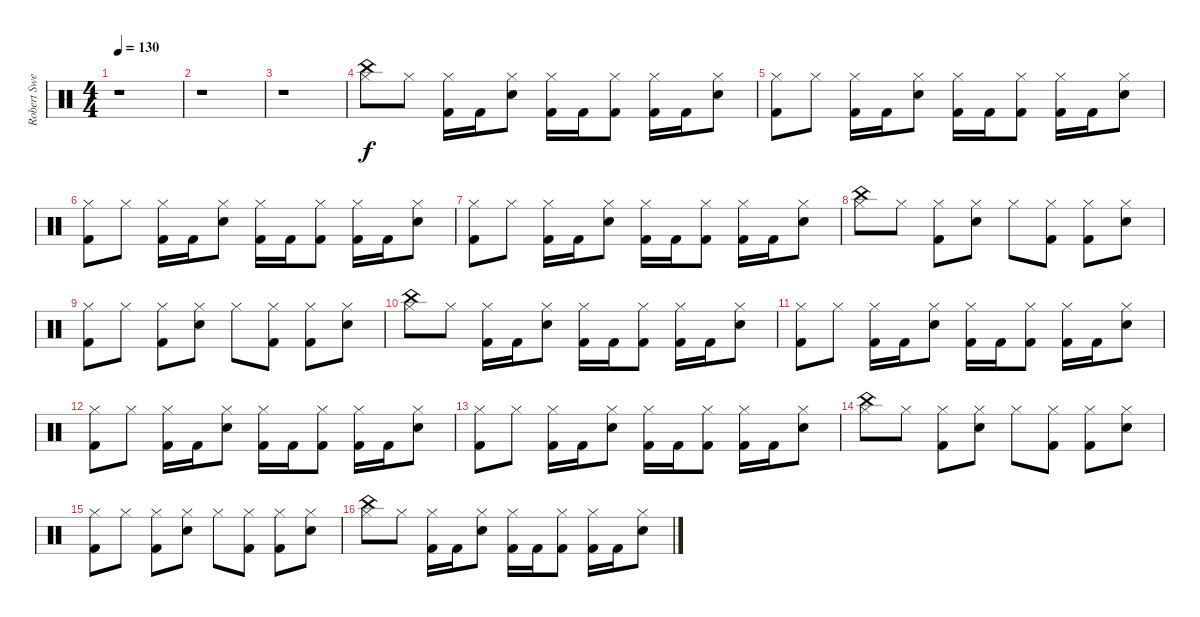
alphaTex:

\track ("Robert Sweet" "Robert Swe") {instrument percussion}
\staff {score}
\articulation defaults
\ts (4 4)
\tempo 130
\clef neutral
\ks c
r.1{dy f} |
r.1 |
r.1 |
("Hi-Hat (closed)" "China (hit)").8 "Hi-Hat (closed)".8 ("Hi-Hat (closed)" "Kick (hit) 2").16 "Kick (hit) 2".16 ("Hi-Hat (closed)" "Snare (hit) 2").8 ("Hi-Hat (closed)" "Kick (hit) 2").16 "Kick (hit) 2".16 ("Hi-Hat (closed)" "Kick (hit) 2").8 ("Hi-Hat (closed)" "Kick (hit) 2").16 "Kick (hit) 2".16 ("Hi-Hat (closed)" "Snare (hit) 2").8 |
("Hi-Hat (closed)" "Kick (hit) 2").8 "Hi-Hat (closed)".8 ("Hi-Hat (closed)" "Kick (hit) 2").16 "Kick (hit) 2".16 ("Hi-Hat (closed)" "Snare (hit) 2").8 ("Hi-Hat (closed)" "Kick (hit) 2").16 "Kick (hit) 2".16 ("Hi-Hat (closed)" "Kick (hit) 2").8 ("Hi-Hat (closed)" "Kick (hit) 2").16 "Kick (hit) 2".16 ("Hi-Hat (closed)" "Snare (hit) 2").8 |
("Hi-Hat (closed)" "Kick (hit) 2").8 "Hi-Hat (closed)".8 ("Hi-Hat (closed)" "Kick (hit) 2").16 "Kick (hit) 2".16 ("Hi-Hat (closed)" "Snare (hit) 2").8 ("Hi-Hat (closed)" "Kick (hit) 2").16 "Kick (hit) 2".16 ("Hi-Hat (closed)" "Kick (hit) 2").8 ("Hi-Hat (closed)" "Kick (hit) 2").16 "Kick (hit) 2".16 ("Hi-Hat (closed)" "Snare (hit) 2").8 |
("Hi-Hat (closed)" "Kick (hit) 2").8 "Hi-Hat (closed)".8 ("Hi-Hat (closed)" "Kick (hit) 2").16 "Kick (hit) 2".16 ("Hi-Hat (closed)" "Snare (hit) 2").8 ("Hi-Hat (closed)" "Kick (hit) 2").16 "Kick (hit) 2".16 ("Hi-Hat (closed)" "Kick (hit) 2").8 ("Hi-Hat (closed)" "Kick (hit) 2").16 "Kick (hit) 2".16 ("Hi-Hat (closed)" "Snare (hit) 2").8 |
("Hi-Hat (closed)" "China (hit)").8 "Hi-Hat (closed)".8 ("Hi-Hat (closed)" "Kick (hit) 2").8 ("Hi-Hat (closed)" "Snare (hit) 2").8 "Hi-Hat (closed)".8 ("Hi-Hat (closed)" "Kick (hit) 2").8 ("Hi-Hat (closed)" "Kick (hit) 2").8 ("Hi-Hat (closed)" "Snare (hit) 2").8 |
("Hi-Hat (closed)" "Kick (hit) 2").8 "Hi-Hat (closed)".8 ("Hi-Hat (closed)" "Kick (hit) 2").8 ("Hi-Hat (closed)" "Snare (hit) 2").8 "Hi-Hat (closed)".8 ("Hi-Hat (closed)" "Kick (hit) 2").8 ("Hi-Hat (closed)" "Kick (hit) 2").8 ("Hi-Hat (closed)" "Snare (hit) 2").8 |
("Hi-Hat (closed)" "China (hit)").8 "Hi-Hat (closed)".8 ("Hi-Hat (closed)" "Kick (hit) 2").16 "Kick (hit) 2".16 ("Hi-Hat (closed)" "Snare (hit) 2").8 ("Hi-Hat (closed)" "Kick (hit) 2").16 "Kick (hit) 2".16 ("Hi-Hat (closed)" "Kick (hit) 2").8 ("Hi-Hat (closed)" "Kick (hit) 2").16 "Kick (hit) 2".16 ("Hi-Hat (closed)" "Snare (hit) 2").8 |
("Hi-Hat (closed)" "Kick (hit) 2").8 "Hi-Hat (closed)".8 ("Hi-Hat (closed)" "Kick (hit) 2").16 "Kick (hit) 2".16 ("Hi-Hat (closed)" "Snare (hit) 2").8 ("Hi-Hat (closed)" "Kick (hit) 2").16 "Kick (hit) 2".16 ("Hi-Hat (closed)" "Kick (hit) 2").8 ("Hi-Hat (closed)" "Kick (hit) 2").16 "Kick (hit) 2".16 ("Hi-Hat (closed)" "Snare (hit) 2").8 |
("Hi-Hat (closed)" "Kick (hit) 2").8 "Hi-Hat (closed)".8 ("Hi-Hat (closed)" "Kick (hit) 2").16 "Kick (hit) 2".16 ("Hi-Hat (closed)" "Snare (hit) 2").8 ("Hi-Hat (closed)" "Kick (hit) 2").16 "Kick (hit) 2".16 ("Hi-Hat (closed)" "Kick (hit) 2").8 ("Hi-Hat (closed)" "Kick (hit) 2").16 "Kick (hit) 2".16 ("Hi-Hat (closed)" "Snare (hit) 2").8 |
("Hi-Hat (closed)" "Kick (hit) 2").8 "Hi-Hat (closed)".8 ("Hi-Hat (closed)" "Kick (hit) 2").16 "Kick (hit) 2".16 ("Hi-Hat (closed)" "Snare (hit) 2").8 ("Hi-Hat (closed)" "Kick (hit) 2").16 "Kick (hit) 2".16 ("Hi-Hat (closed)" "Kick (hit) 2").8 ("Hi-Hat (closed)" "Kick (hit) 2").16 "Kick (hit) 2".16 ("Hi-Hat (closed)" "Snare (hit) 2").8 |
("Hi-Hat (closed)" "China (hit)").8 "Hi-Hat (closed)".8 ("Hi-Hat (closed)" "Kick (hit) 2").8 ("Hi-Hat (closed)" "Snare (hit) 2").8 "Hi-Hat (closed)".8 ("Hi-Hat (closed)" "Kick (hit) 2").8 ("Hi-Hat (closed)" "Kick (hit) 2").8 ("Hi-Hat (closed)" "Snare (hit) 2").8 |
("Hi-Hat (closed)" "Kick (hit) 2").8 "Hi-Hat (closed)".8 ("Hi-Hat (closed)" "Kick (hit) 2").8 ("Hi-Hat (closed)" "Snare (hit) 2").8 "Hi-Hat (closed)".8 ("Hi-Hat (closed)" "Kick (hit) 2").8 ("Hi-Hat (closed)" "Kick (hit) 2").8 ("Hi-Hat (closed)" "Snare (hit) 2").8 |
("Hi-Hat (closed)" "China (hit)").8 "Hi-Hat (closed)".8 ("Hi-Hat (closed)" "Kick (hit) 2").16 "Kick (hit) 2".16 ("Hi-Hat (closed)" "Snare (hit) 2").8 ("Hi-Hat (closed)" "Kick (hit) 2").16 "Kick (hit) 2".16 ("Hi-Hat (closed)" "Kick (hit) 2").8 ("Hi-Hat (closed)" "Kick (hit) 2").16 "Kick (hit) 2".16 ("Hi-Hat (closed)" "Snare (hit) 2").8
